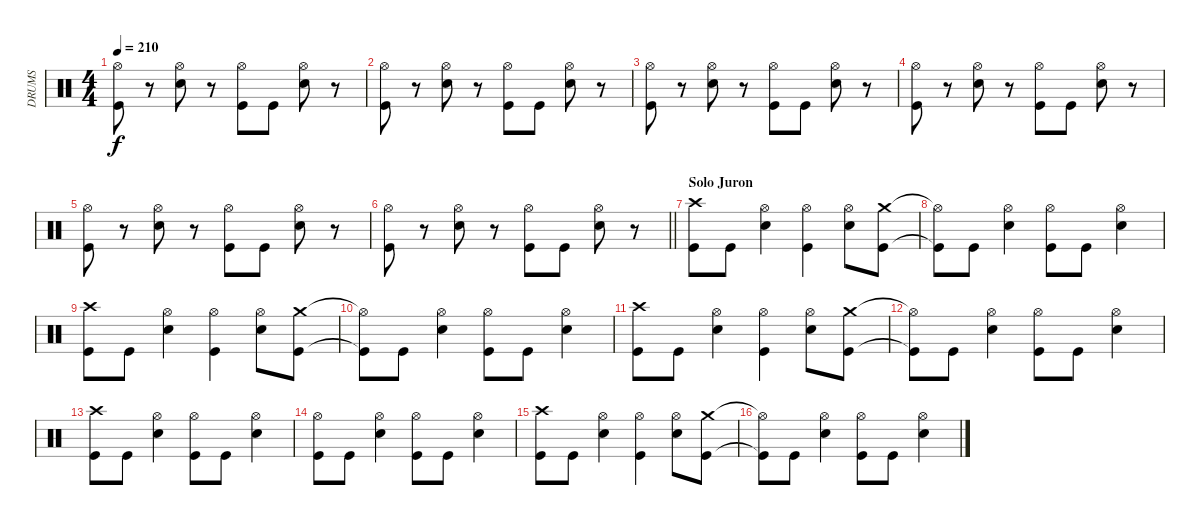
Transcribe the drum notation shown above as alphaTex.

\track ("DRUMS" "DRUMS") {instrument percussion}
\staff {score}
\articulation defaults
\ts (4 4)
\tempo 210
\clef neutral
\ks c
("Hi-Hat (open)" "Kick (hit)").8{dy f} r.8 ("Hi-Hat (open)" "Snare (hit) 2").8 r.8 ("Hi-Hat (open)" "Kick (hit)").8 "Kick (hit)".8 ("Hi-Hat (open)" "Snare (hit) 2").8 r.8 |
("Hi-Hat (open)" "Kick (hit)").8 r.8 ("Hi-Hat (open)" "Snare (hit) 2").8 r.8 ("Hi-Hat (open)" "Kick (hit)").8 "Kick (hit)".8 ("Hi-Hat (open)" "Snare (hit) 2").8 r.8 |
("Hi-Hat (open)" "Kick (hit)").8 r.8 ("Hi-Hat (open)" "Snare (hit) 2").8 r.8 ("Hi-Hat (open)" "Kick (hit)").8 "Kick (hit)".8 ("Hi-Hat (open)" "Snare (hit) 2").8 r.8 |
("Hi-Hat (open)" "Kick (hit)").8 r.8 ("Hi-Hat (open)" "Snare (hit) 2").8 r.8 ("Hi-Hat (open)" "Kick (hit)").8 "Kick (hit)".8 ("Hi-Hat (open)" "Snare (hit) 2").8 r.8 |
("Hi-Hat (open)" "Kick (hit)").8 r.8 ("Hi-Hat (open)" "Snare (hit) 2").8 r.8 ("Hi-Hat (open)" "Kick (hit)").8 "Kick (hit)".8 ("Hi-Hat (open)" "Snare (hit) 2").8 r.8 |
\barLineRight lightlight
("Hi-Hat (open)" "Kick (hit)").8 r.8 ("Hi-Hat (open)" "Snare (hit) 2").8 r.8 ("Hi-Hat (open)" "Kick (hit)").8 "Kick (hit)".8 ("Hi-Hat (open)" "Snare (hit) 2").8 r.8 |
\section ("" "Solo Juron")
("Crash high (hit)" "Kick (hit)").8 "Kick (hit)".8 ("Hi-Hat (open)" "Snare (hit) 2").4 ("Hi-Hat (open)" "Kick (hit)").4 ("Hi-Hat (open)" "Snare (hit) 2").8 ("Crash medium (hit)" "Kick (hit)").8 |
("Hi-Hat (open)"{t} "Kick (hit)"{t}).8 "Kick (hit)".8 ("Hi-Hat (open)" "Snare (hit) 2").4 ("Hi-Hat (open)" "Kick (hit)").8 "Kick (hit)".8 ("Hi-Hat (open)" "Snare (hit) 2").4 |
("Crash high (hit)" "Kick (hit)").8 "Kick (hit)".8 ("Hi-Hat (open)" "Snare (hit) 2").4 ("Hi-Hat (open)" "Kick (hit)").4 ("Hi-Hat (open)" "Snare (hit) 2").8 ("Crash medium (hit)" "Kick (hit)").8 |
("Hi-Hat (open)"{t} "Kick (hit)"{t}).8 "Kick (hit)".8 ("Hi-Hat (open)" "Snare (hit) 2").4 ("Hi-Hat (open)" "Kick (hit)").8 "Kick (hit)".8 ("Hi-Hat (open)" "Snare (hit) 2").4 |
("Crash high (hit)" "Kick (hit)").8 "Kick (hit)".8 ("Hi-Hat (open)" "Snare (hit) 2").4 ("Hi-Hat (open)" "Kick (hit)").4 ("Hi-Hat (open)" "Snare (hit) 2").8 ("Crash medium (hit)" "Kick (hit)").8 |
("Hi-Hat (open)"{t} "Kick (hit)"{t}).8 "Kick (hit)".8 ("Hi-Hat (open)" "Snare (hit) 2").4 ("Hi-Hat (open)" "Kick (hit)").8 "Kick (hit)".8 ("Hi-Hat (open)" "Snare (hit) 2").4 |
("Crash high (hit)" "Kick (hit)").8 "Kick (hit)".8 ("Hi-Hat (open)" "Snare (hit) 2").4 ("Hi-Hat (open)" "Kick (hit)").8 "Kick (hit)".8 ("Hi-Hat (open)" "Snare (hit) 2").4 |
("Hi-Hat (open)" "Kick (hit)").8 "Kick (hit)".8 ("Hi-Hat (open)" "Snare (hit) 2").4 ("Hi-Hat (open)" "Kick (hit)").8 "Kick (hit)".8 ("Hi-Hat (open)" "Snare (hit) 2").4 |
("Crash high (hit)" "Kick (hit)").8 "Kick (hit)".8 ("Hi-Hat (open)" "Snare (hit) 2").4 ("Hi-Hat (open)" "Kick (hit)").4 ("Hi-Hat (open)" "Snare (hit) 2").8 ("Crash medium (hit)" "Kick (hit)").8 |
("Hi-Hat (open)"{t} "Kick (hit)"{t}).8 "Kick (hit)".8 ("Hi-Hat (open)" "Snare (hit) 2").4 ("Hi-Hat (open)" "Kick (hit)").8 "Kick (hit)".8 ("Hi-Hat (open)" "Snare (hit) 2").4
